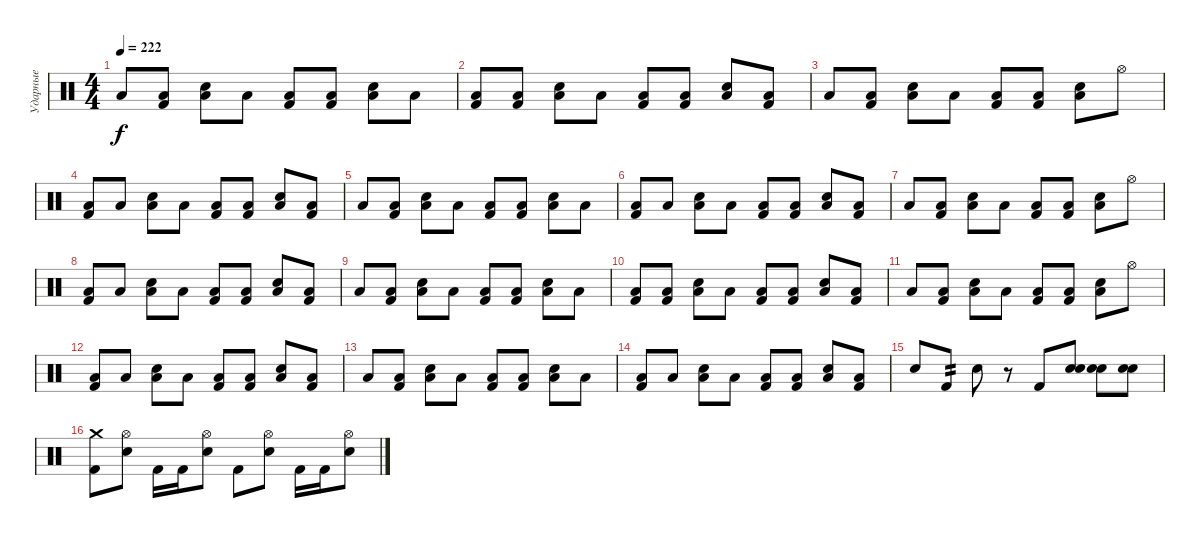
\track ("Ударные" "Ударные") {instrument percussion}
\staff {score}
\articulation defaults
\ts (4 4)
\tempo 222
\clef neutral
\ks c "Low Floor Tom (hit)".8{dy f}
("Kick (hit) 2" "Low Floor Tom (hit)").8 ("Electric Snare (hit)" "Low Floor Tom (hit)").8 "Low Floor Tom (hit)".8 ("Kick (hit) 2" "Low Floor Tom (hit)").8 ("Kick (hit) 2" "Low Floor Tom (hit)").8 ("Electric Snare (hit)" "Low Floor Tom (hit)").8 "Low Floor Tom (hit)".8 |
("Kick (hit) 2" "Low Floor Tom (hit)").8 ("Kick (hit) 2" "Low Floor Tom (hit)").8 ("Electric Snare (hit)" "Low Floor Tom (hit)").8 "Low Floor Tom (hit)".8 ("Kick (hit) 2" "Low Floor Tom (hit)").8 ("Kick (hit) 2" "Low Floor Tom (hit)").8 ("Electric Snare (hit)" "Low Floor Tom (hit)").8 ("Kick (hit) 2" "Low Floor Tom (hit)").8 |
"Low Floor Tom (hit)".8 ("Kick (hit) 2" "Low Floor Tom (hit)").8 ("Electric Snare (hit)" "Low Floor Tom (hit)").8 "Low Floor Tom (hit)".8 ("Kick (hit) 2" "Low Floor Tom (hit)").8 ("Kick (hit) 2" "Low Floor Tom (hit)").8 ("Electric Snare (hit)" "Low Floor Tom (hit)").8 "Hi-Hat (open)".8 |
("Kick (hit) 2" "Low Floor Tom (hit)").8 "Low Floor Tom (hit)".8 ("Electric Snare (hit)" "Low Floor Tom (hit)").8 "Low Floor Tom (hit)".8 ("Kick (hit) 2" "Low Floor Tom (hit)").8 ("Kick (hit) 2" "Low Floor Tom (hit)").8 ("Electric Snare (hit)" "Low Floor Tom (hit)").8 ("Kick (hit) 2" "Low Floor Tom (hit)").8 |
"Low Floor Tom (hit)".8 ("Kick (hit) 2" "Low Floor Tom (hit)").8 ("Electric Snare (hit)" "Low Floor Tom (hit)").8 "Low Floor Tom (hit)".8 ("Kick (hit) 2" "Low Floor Tom (hit)").8 ("Kick (hit) 2" "Low Floor Tom (hit)").8 ("Electric Snare (hit)" "Low Floor Tom (hit)").8 "Low Floor Tom (hit)".8 |
("Kick (hit) 2" "Low Floor Tom (hit)").8 "Low Floor Tom (hit)".8 ("Electric Snare (hit)" "Low Floor Tom (hit)").8 "Low Floor Tom (hit)".8 ("Kick (hit) 2" "Low Floor Tom (hit)").8 ("Kick (hit) 2" "Low Floor Tom (hit)").8 ("Electric Snare (hit)" "Low Floor Tom (hit)").8 ("Kick (hit) 2" "Low Floor Tom (hit)").8 |
"Low Floor Tom (hit)".8 ("Kick (hit) 2" "Low Floor Tom (hit)").8 ("Electric Snare (hit)" "Low Floor Tom (hit)").8 "Low Floor Tom (hit)".8 ("Kick (hit) 2" "Low Floor Tom (hit)").8 ("Kick (hit) 2" "Low Floor Tom (hit)").8 ("Electric Snare (hit)" "Low Floor Tom (hit)").8 "Hi-Hat (open)".8 |
("Kick (hit) 2" "Low Floor Tom (hit)").8 "Low Floor Tom (hit)".8 ("Electric Snare (hit)" "Low Floor Tom (hit)").8 "Low Floor Tom (hit)".8 ("Kick (hit) 2" "Low Floor Tom (hit)").8 ("Kick (hit) 2" "Low Floor Tom (hit)").8 ("Electric Snare (hit)" "Low Floor Tom (hit)").8 ("Kick (hit) 2" "Low Floor Tom (hit)").8 |
"Low Floor Tom (hit)".8 ("Kick (hit) 2" "Low Floor Tom (hit)").8 ("Electric Snare (hit)" "Low Floor Tom (hit)").8 "Low Floor Tom (hit)".8 ("Kick (hit) 2" "Low Floor Tom (hit)").8 ("Kick (hit) 2" "Low Floor Tom (hit)").8 ("Electric Snare (hit)" "Low Floor Tom (hit)").8 "Low Floor Tom (hit)".8 |
("Kick (hit) 2" "Low Floor Tom (hit)").8 ("Kick (hit) 2" "Low Floor Tom (hit)").8 ("Electric Snare (hit)" "Low Floor Tom (hit)").8 "Low Floor Tom (hit)".8 ("Kick (hit) 2" "Low Floor Tom (hit)").8 ("Kick (hit) 2" "Low Floor Tom (hit)").8 ("Electric Snare (hit)" "Low Floor Tom (hit)").8 ("Kick (hit) 2" "Low Floor Tom (hit)").8 |
"Low Floor Tom (hit)".8 ("Kick (hit) 2" "Low Floor Tom (hit)").8 ("Electric Snare (hit)" "Low Floor Tom (hit)").8 "Low Floor Tom (hit)".8 ("Kick (hit) 2" "Low Floor Tom (hit)").8 ("Kick (hit) 2" "Low Floor Tom (hit)").8 ("Electric Snare (hit)" "Low Floor Tom (hit)").8 "Hi-Hat (open)".8 |
("Kick (hit) 2" "Low Floor Tom (hit)").8 "Low Floor Tom (hit)".8 ("Electric Snare (hit)" "Low Floor Tom (hit)").8 "Low Floor Tom (hit)".8 ("Kick (hit) 2" "Low Floor Tom (hit)").8 ("Kick (hit) 2" "Low Floor Tom (hit)").8 ("Electric Snare (hit)" "Low Floor Tom (hit)").8 ("Kick (hit) 2" "Low Floor Tom (hit)").8 |
"Low Floor Tom (hit)".8 ("Kick (hit) 2" "Low Floor Tom (hit)").8 ("Electric Snare (hit)" "Low Floor Tom (hit)").8 "Low Floor Tom (hit)".8 ("Kick (hit) 2" "Low Floor Tom (hit)").8 ("Kick (hit) 2" "Low Floor Tom (hit)").8 ("Electric Snare (hit)" "Low Floor Tom (hit)").8 "Low Floor Tom (hit)".8 |
("Kick (hit) 2" "Low Floor Tom (hit)").8 "Low Floor Tom (hit)".8 ("Electric Snare (hit)" "Low Floor Tom (hit)").8 "Low Floor Tom (hit)".8 ("Kick (hit) 2" "Low Floor Tom (hit)").8 ("Kick (hit) 2" "Low Floor Tom (hit)").8 ("Electric Snare (hit)" "Low Floor Tom (hit)").8 ("Kick (hit) 2" "Low Floor Tom (hit)").8 |
"Electric Snare (hit)".8 "Kick (hit) 2".8{tp 2} "Electric Snare (hit)".8 r.8 "Kick (hit) 2".8 ("Electric Snare (hit)" "Electric Snare (hit)").8 ("Electric Snare (hit)" "Electric Snare (hit)").8 ("Electric Snare (hit)" "Electric Snare (hit)").8 |
("Kick (hit) 2" "Crash medium (hit)").8 ("Electric Snare (hit)" "Hi-Hat (open)").8 "Kick (hit) 2".16 "Kick (hit) 2".16 ("Electric Snare (hit)" "Hi-Hat (open)").8 "Kick (hit) 2".8 ("Electric Snare (hit)" "Hi-Hat (open)").8 "Kick (hit) 2".16 "Kick (hit) 2".16 ("Electric Snare (hit)" "Hi-Hat (open)").8
